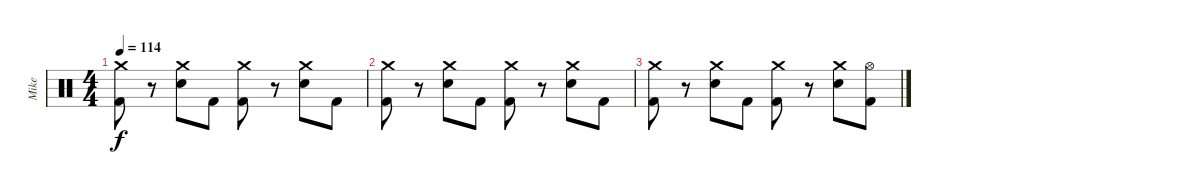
\track ("Mike" "Mike") {instrument percussion}
\staff {score}
\articulation defaults
\ts (4 4)
\tempo 114
\clef neutral
\ks c
("Crash medium (hit)" "Kick (hit) 2").8{dy f} r.8 ("Crash medium (hit)" "Electric Snare (hit)").8 "Kick (hit) 2".8 ("Crash medium (hit)" "Kick (hit) 2").8 r.8 ("Crash medium (hit)" "Electric Snare (hit)").8 "Kick (hit) 2".8 |
("Crash medium (hit)" "Kick (hit) 2").8 r.8 ("Crash medium (hit)" "Electric Snare (hit)").8 "Kick (hit) 2".8 ("Crash medium (hit)" "Kick (hit) 2").8 r.8 ("Crash medium (hit)" "Electric Snare (hit)").8 "Kick (hit) 2".8 |
("Crash medium (hit)" "Kick (hit) 2").8 r.8 ("Crash medium (hit)" "Electric Snare (hit)").8 "Kick (hit) 2".8 ("Crash medium (hit)" "Kick (hit) 2").8 r.8 ("Crash medium (hit)" "Electric Snare (hit)").8 ("Hi-Hat (open)" "Kick (hit) 2").8
